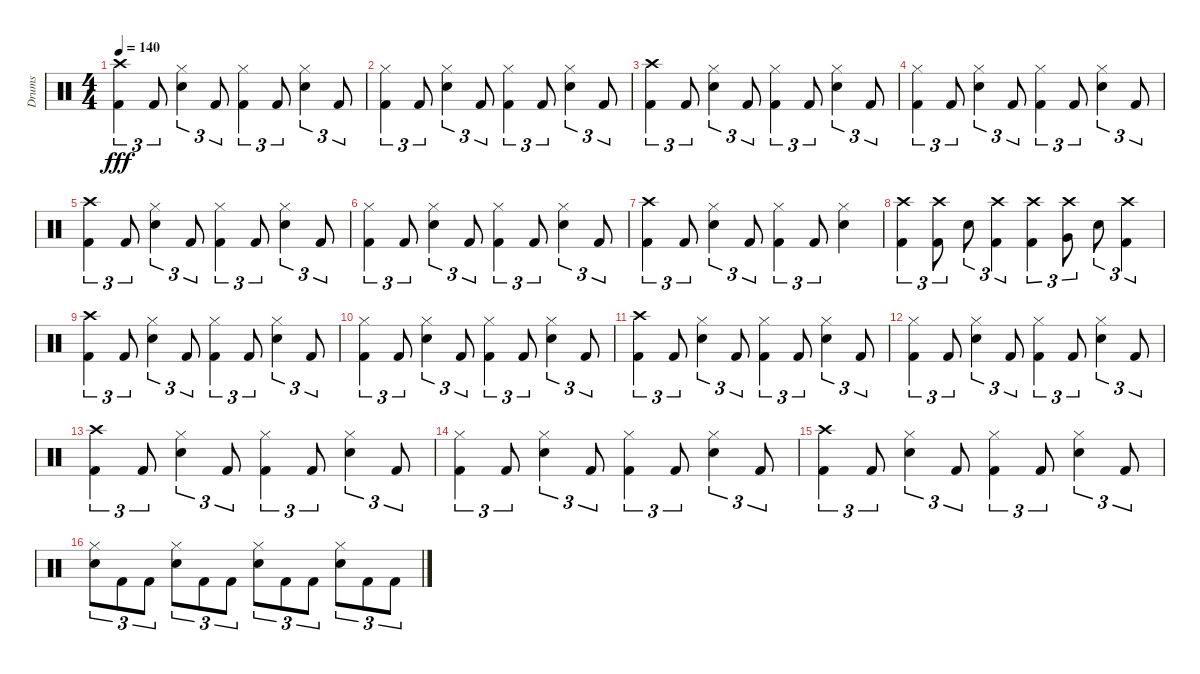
\track ("Drums" "Drums") {instrument percussion}
\staff {score}
\articulation defaults
\ts (4 4)
\tempo 140
\clef neutral
\ks c
("Crash high (hit)" "Kick (hit) 2").4{tu (3 2) dy fff} "Kick (hit) 2".8{tu (3 2)} ("Hi-Hat (closed)" "Snare (hit) 2").4{tu (3 2)} "Kick (hit) 2".8{tu (3 2)} ("Kick (hit) 2" "Hi-Hat (closed)").4{tu (3 2)} "Kick (hit) 2".8{tu (3 2)} ("Hi-Hat (closed)" "Snare (hit) 2").4{tu (3 2)} "Kick (hit) 2".8{tu (3 2)} |
("Kick (hit) 2" "Hi-Hat (closed)").4{tu (3 2)} "Kick (hit) 2".8{tu (3 2)} ("Hi-Hat (closed)" "Snare (hit) 2").4{tu (3 2)} "Kick (hit) 2".8{tu (3 2)} ("Kick (hit) 2" "Hi-Hat (closed)").4{tu (3 2)} "Kick (hit) 2".8{tu (3 2)} ("Hi-Hat (closed)" "Snare (hit) 2").4{tu (3 2)} "Kick (hit) 2".8{tu (3 2)} |
("Crash high (hit)" "Kick (hit) 2").4{tu (3 2)} "Kick (hit) 2".8{tu (3 2)} ("Hi-Hat (closed)" "Snare (hit) 2").4{tu (3 2)} "Kick (hit) 2".8{tu (3 2)} ("Kick (hit) 2" "Hi-Hat (closed)").4{tu (3 2)} "Kick (hit) 2".8{tu (3 2)} ("Hi-Hat (closed)" "Snare (hit) 2").4{tu (3 2)} "Kick (hit) 2".8{tu (3 2)} |
("Kick (hit) 2" "Hi-Hat (closed)").4{tu (3 2)} "Kick (hit) 2".8{tu (3 2)} ("Hi-Hat (closed)" "Snare (hit) 2").4{tu (3 2)} "Kick (hit) 2".8{tu (3 2)} ("Kick (hit) 2" "Hi-Hat (closed)").4{tu (3 2)} "Kick (hit) 2".8{tu (3 2)} ("Hi-Hat (closed)" "Snare (hit) 2").4{tu (3 2)} "Kick (hit) 2".8{tu (3 2)} |
("Crash high (hit)" "Kick (hit) 2").4{tu (3 2)} "Kick (hit) 2".8{tu (3 2)} ("Hi-Hat (closed)" "Snare (hit) 2").4{tu (3 2)} "Kick (hit) 2".8{tu (3 2)} ("Kick (hit) 2" "Hi-Hat (closed)").4{tu (3 2)} "Kick (hit) 2".8{tu (3 2)} ("Hi-Hat (closed)" "Snare (hit) 2").4{tu (3 2)} "Kick (hit) 2".8{tu (3 2)} |
("Kick (hit) 2" "Hi-Hat (closed)").4{tu (3 2)} "Kick (hit) 2".8{tu (3 2)} ("Hi-Hat (closed)" "Snare (hit) 2").4{tu (3 2)} "Kick (hit) 2".8{tu (3 2)} ("Kick (hit) 2" "Hi-Hat (closed)").4{tu (3 2)} "Kick (hit) 2".8{tu (3 2)} ("Hi-Hat (closed)" "Snare (hit) 2").4{tu (3 2)} "Kick (hit) 2".8{tu (3 2)} |
("Crash high (hit)" "Kick (hit) 2").4{tu (3 2)} "Kick (hit) 2".8{tu (3 2)} ("Hi-Hat (closed)" "Snare (hit) 2").4{tu (3 2)} "Kick (hit) 2".8{tu (3 2)} ("Kick (hit) 2" "Hi-Hat (closed)").4{tu (3 2)} "Kick (hit) 2".8{tu (3 2)} ("Hi-Hat (closed)" "Snare (hit) 2").4 |
("Kick (hit) 2" "Crash high (hit)").4{tu (3 2)} ("Kick (hit) 2" "Crash high (hit)").8{tu (3 2)} "Snare (hit) 2".8{tu (3 2)} ("Kick (hit) 2" "Crash high (hit)").4{tu (3 2)} ("Kick (hit) 2" "Crash high (hit)").4{tu (3 2)} ("Very Low Tom (hit)" "Crash high (hit)").8{tu (3 2)} "Snare (hit) 2".8{tu (3 2)} ("Kick (hit) 2" "Crash high (hit)").4{tu (3 2)} |
("Crash high (hit)" "Kick (hit) 2").4{tu (3 2)} "Kick (hit) 2".8{tu (3 2)} ("Hi-Hat (closed)" "Snare (hit) 2").4{tu (3 2)} "Kick (hit) 2".8{tu (3 2)} ("Kick (hit) 2" "Hi-Hat (closed)").4{tu (3 2)} "Kick (hit) 2".8{tu (3 2)} ("Hi-Hat (closed)" "Snare (hit) 2").4{tu (3 2)} "Kick (hit) 2".8{tu (3 2)} |
("Kick (hit) 2" "Hi-Hat (closed)").4{tu (3 2)} "Kick (hit) 2".8{tu (3 2)} ("Hi-Hat (closed)" "Snare (hit) 2").4{tu (3 2)} "Kick (hit) 2".8{tu (3 2)} ("Kick (hit) 2" "Hi-Hat (closed)").4{tu (3 2)} "Kick (hit) 2".8{tu (3 2)} ("Hi-Hat (closed)" "Snare (hit) 2").4{tu (3 2)} "Kick (hit) 2".8{tu (3 2)} |
("Crash high (hit)" "Kick (hit) 2").4{tu (3 2)} "Kick (hit) 2".8{tu (3 2)} ("Hi-Hat (closed)" "Snare (hit) 2").4{tu (3 2)} "Kick (hit) 2".8{tu (3 2)} ("Kick (hit) 2" "Hi-Hat (closed)").4{tu (3 2)} "Kick (hit) 2".8{tu (3 2)} ("Hi-Hat (closed)" "Snare (hit) 2").4{tu (3 2)} "Kick (hit) 2".8{tu (3 2)} |
("Kick (hit) 2" "Hi-Hat (closed)").4{tu (3 2)} "Kick (hit) 2".8{tu (3 2)} ("Hi-Hat (closed)" "Snare (hit) 2").4{tu (3 2)} "Kick (hit) 2".8{tu (3 2)} ("Kick (hit) 2" "Hi-Hat (closed)").4{tu (3 2)} "Kick (hit) 2".8{tu (3 2)} ("Hi-Hat (closed)" "Snare (hit) 2").4{tu (3 2)} "Kick (hit) 2".8{tu (3 2)} |
("Crash high (hit)" "Kick (hit) 2").4{tu (3 2)} "Kick (hit) 2".8{tu (3 2)} ("Hi-Hat (closed)" "Snare (hit) 2").4{tu (3 2)} "Kick (hit) 2".8{tu (3 2)} ("Kick (hit) 2" "Hi-Hat (closed)").4{tu (3 2)} "Kick (hit) 2".8{tu (3 2)} ("Hi-Hat (closed)" "Snare (hit) 2").4{tu (3 2)} "Kick (hit) 2".8{tu (3 2)} |
("Kick (hit) 2" "Hi-Hat (closed)").4{tu (3 2)} "Kick (hit) 2".8{tu (3 2)} ("Hi-Hat (closed)" "Snare (hit) 2").4{tu (3 2)} "Kick (hit) 2".8{tu (3 2)} ("Kick (hit) 2" "Hi-Hat (closed)").4{tu (3 2)} "Kick (hit) 2".8{tu (3 2)} ("Hi-Hat (closed)" "Snare (hit) 2").4{tu (3 2)} "Kick (hit) 2".8{tu (3 2)} |
("Crash high (hit)" "Kick (hit) 2").4{tu (3 2)} "Kick (hit) 2".8{tu (3 2)} ("Hi-Hat (closed)" "Snare (hit) 2").4{tu (3 2)} "Kick (hit) 2".8{tu (3 2)} ("Kick (hit) 2" "Hi-Hat (closed)").4{tu (3 2)} "Kick (hit) 2".8{tu (3 2)} ("Hi-Hat (closed)" "Snare (hit) 2").4{tu (3 2)} "Kick (hit) 2".8{tu (3 2)} |
("Hi-Hat (closed)" "Snare (hit) 2").8{tu (3 2)} "Kick (hit) 2".8{tu (3 2)} "Kick (hit) 2".8{tu (3 2)} ("Hi-Hat (closed)" "Snare (hit) 2").8{tu (3 2)} "Kick (hit) 2".8{tu (3 2)} "Kick (hit) 2".8{tu (3 2)} ("Hi-Hat (closed)" "Snare (hit) 2").8{tu (3 2)} "Kick (hit) 2".8{tu (3 2)} "Kick (hit) 2".8{tu (3 2)} ("Hi-Hat (closed)" "Snare (hit) 2").8{tu (3 2)} "Kick (hit) 2".8{tu (3 2)} "Kick (hit) 2".8{tu (3 2)}
